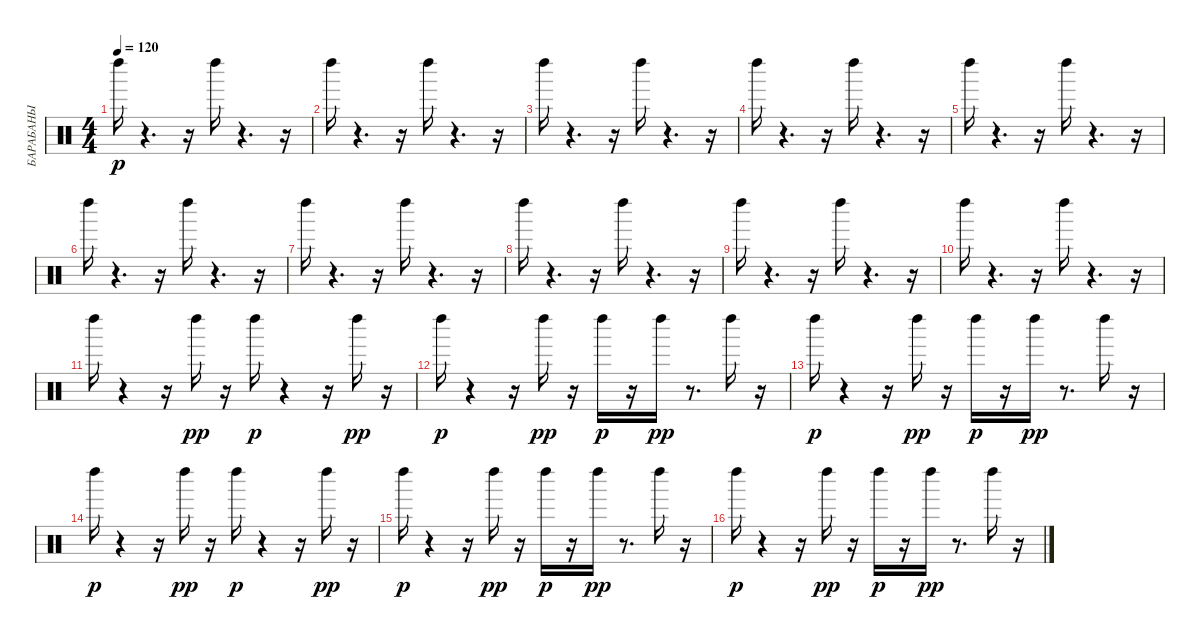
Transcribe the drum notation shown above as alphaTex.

\track ("БАРАБАНЫ" "БАРАБАНЫ") {instrument percussion}
\staff {score}
\articulation defaults
\ts (4 4)
\tempo 120
\clef neutral
\ks c "Left Maraca (hit)".16{dy p}
r.4{d} r.16 "Left Maraca (hit)".16 r.4{d} r.16 |
"Left Maraca (hit)".16 r.4{d} r.16 "Left Maraca (hit)".16 r.4{d} r.16 |
"Left Maraca (hit)".16 r.4{d} r.16 "Left Maraca (hit)".16 r.4{d} r.16 |
"Left Maraca (hit)".16 r.4{d} r.16 "Left Maraca (hit)".16 r.4{d} r.16 |
"Left Maraca (hit)".16 r.4{d} r.16 "Left Maraca (hit)".16 r.4{d} r.16 |
"Left Maraca (hit)".16 r.4{d} r.16 "Left Maraca (hit)".16 r.4{d} r.16 |
"Left Maraca (hit)".16 r.4{d} r.16 "Left Maraca (hit)".16 r.4{d} r.16 |
"Left Maraca (hit)".16 r.4{d} r.16 "Left Maraca (hit)".16 r.4{d} r.16 |
"Left Maraca (hit)".16 r.4{d} r.16 "Left Maraca (hit)".16 r.4{d} r.16 |
"Left Maraca (hit)".16 r.4{d} r.16 "Left Maraca (hit)".16 r.4{d} r.16 |
"Left Maraca (hit)".16 r.4 r.16 "Left Maraca (hit)".16{dy pp} r.16 "Left Maraca (hit)".16{dy p} r.4 r.16 "Left Maraca (hit)".16{dy pp} r.16 |
"Left Maraca (hit)".16{dy p} r.4 r.16 "Left Maraca (hit)".16{dy pp} r.16 "Left Maraca (hit)".16{dy p} r.16 "Left Maraca (hit)".16{dy pp} r.8{d} "Left Maraca (hit)".16 r.16 |
"Left Maraca (hit)".16{dy p} r.4 r.16 "Left Maraca (hit)".16{dy pp} r.16 "Left Maraca (hit)".16{dy p} r.16 "Left Maraca (hit)".16{dy pp} r.8{d} "Left Maraca (hit)".16 r.16 |
"Left Maraca (hit)".16{dy p} r.4 r.16 "Left Maraca (hit)".16{dy pp} r.16 "Left Maraca (hit)".16{dy p} r.4 r.16 "Left Maraca (hit)".16{dy pp} r.16 |
"Left Maraca (hit)".16{dy p} r.4 r.16 "Left Maraca (hit)".16{dy pp} r.16 "Left Maraca (hit)".16{dy p} r.16 "Left Maraca (hit)".16{dy pp} r.8{d} "Left Maraca (hit)".16 r.16 |
"Left Maraca (hit)".16{dy p} r.4 r.16 "Left Maraca (hit)".16{dy pp} r.16 "Left Maraca (hit)".16{dy p} r.16 "Left Maraca (hit)".16{dy pp} r.8{d} "Left Maraca (hit)".16 r.16
